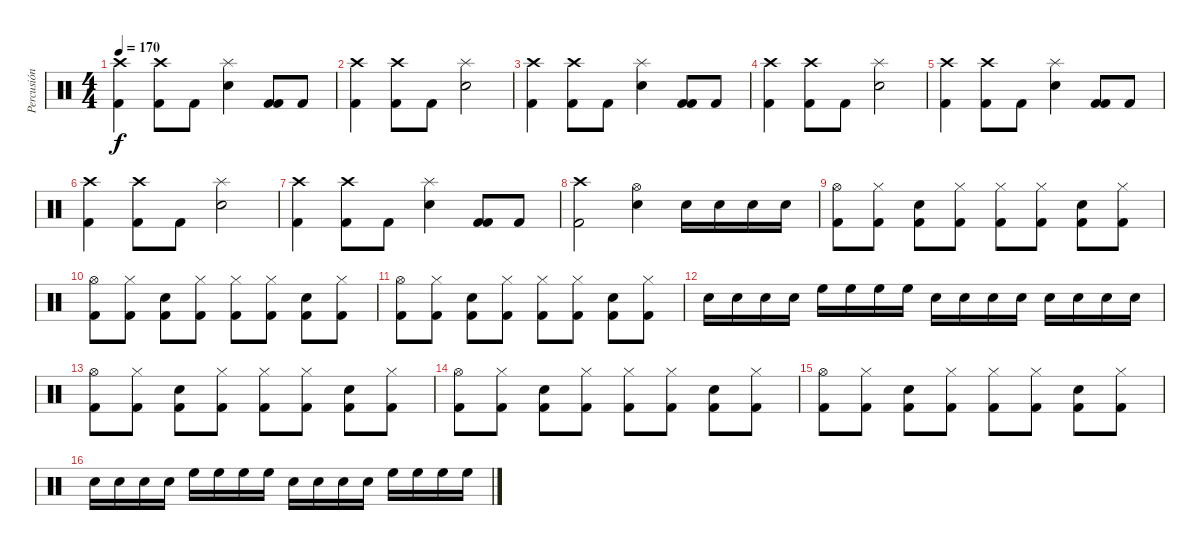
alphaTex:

\track ("Percusión" "Percusión") {instrument percussion}
\staff {score}
\articulation defaults
\ts (4 4)
\tempo 170
\clef neutral
\ks c
("Kick (hit) 2" "Crash high (hit)").4{dy f} ("Kick (hit) 2" "Crash high (hit)").8 "Kick (hit) 2".8 ("Splash (hit)" "Snare (hit) 2").4 ("Kick (hit) 2" "Kick (hit) 2").8 "Kick (hit) 2".8 |
("Kick (hit) 2" "Crash high (hit)").4 ("Kick (hit) 2" "Crash high (hit)").8 "Kick (hit) 2".8 ("Splash (hit)" "Snare (hit) 2").2 |
("Kick (hit) 2" "Crash high (hit)").4 ("Kick (hit) 2" "Crash high (hit)").8 "Kick (hit) 2".8 ("Splash (hit)" "Snare (hit) 2").4 ("Kick (hit) 2" "Kick (hit) 2").8 "Kick (hit) 2".8 |
("Kick (hit) 2" "Crash high (hit)").4 ("Kick (hit) 2" "Crash high (hit)").8 "Kick (hit) 2".8 ("Splash (hit)" "Snare (hit) 2").2 |
("Kick (hit) 2" "Crash high (hit)").4 ("Kick (hit) 2" "Crash high (hit)").8 "Kick (hit) 2".8 ("Splash (hit)" "Snare (hit) 2").4 ("Kick (hit) 2" "Kick (hit) 2").8 "Kick (hit) 2".8 |
("Kick (hit) 2" "Crash high (hit)").4 ("Kick (hit) 2" "Crash high (hit)").8 "Kick (hit) 2".8 ("Splash (hit)" "Snare (hit) 2").2 |
("Kick (hit) 2" "Crash high (hit)").4 ("Kick (hit) 2" "Crash high (hit)").8 "Kick (hit) 2".8 ("Splash (hit)" "Snare (hit) 2").4 ("Kick (hit) 2" "Kick (hit) 2").8 "Kick (hit) 2".8 |
("Kick (hit) 2" "Crash high (hit)").2 ("Snare (hit) 2" "Hi-Hat (open)").4 "Snare (hit) 2".16 "Snare (hit) 2".16 "Snare (hit) 2".16 "Snare (hit) 2".16 |
("Kick (hit) 2" "Hi-Hat (open)").8 ("Kick (hit) 2" "Hi-Hat (closed)").8 ("Kick (hit) 2" "Snare (hit) 2").8 ("Kick (hit) 2" "Hi-Hat (closed)").8 ("Kick (hit) 2" "Hi-Hat (closed)").8 ("Kick (hit) 2" "Hi-Hat (closed)").8 ("Kick (hit) 2" "Snare (hit) 2").8 ("Kick (hit) 2" "Hi-Hat (closed)").8 |
("Kick (hit) 2" "Hi-Hat (open)").8 ("Kick (hit) 2" "Hi-Hat (closed)").8 ("Kick (hit) 2" "Snare (hit) 2").8 ("Kick (hit) 2" "Hi-Hat (closed)").8 ("Kick (hit) 2" "Hi-Hat (closed)").8 ("Kick (hit) 2" "Hi-Hat (closed)").8 ("Kick (hit) 2" "Snare (hit) 2").8 ("Kick (hit) 2" "Hi-Hat (closed)").8 |
("Kick (hit) 2" "Hi-Hat (open)").8 ("Kick (hit) 2" "Hi-Hat (closed)").8 ("Kick (hit) 2" "Snare (hit) 2").8 ("Kick (hit) 2" "Hi-Hat (closed)").8 ("Kick (hit) 2" "Hi-Hat (closed)").8 ("Kick (hit) 2" "Hi-Hat (closed)").8 ("Kick (hit) 2" "Snare (hit) 2").8 ("Kick (hit) 2" "Hi-Hat (closed)").8 |
"Snare (hit) 2".16 "Snare (hit) 2".16 "Snare (hit) 2".16 "Snare (hit) 2".16 "High Floor Tom (hit)".16 "High Floor Tom (hit)".16 "High Floor Tom (hit)".16 "High Floor Tom (hit)".16 "Snare (hit) 2".16 "Snare (hit) 2".16 "Snare (hit) 2".16 "Snare (hit) 2".16 "Snare (hit) 2".16 "Snare (hit) 2".16 "Snare (hit) 2".16 "Snare (hit) 2".16 |
("Kick (hit) 2" "Hi-Hat (open)").8 ("Kick (hit) 2" "Hi-Hat (closed)").8 ("Kick (hit) 2" "Snare (hit) 2").8 ("Kick (hit) 2" "Hi-Hat (closed)").8 ("Kick (hit) 2" "Hi-Hat (closed)").8 ("Kick (hit) 2" "Hi-Hat (closed)").8 ("Kick (hit) 2" "Snare (hit) 2").8 ("Kick (hit) 2" "Hi-Hat (closed)").8 |
("Kick (hit) 2" "Hi-Hat (open)").8 ("Kick (hit) 2" "Hi-Hat (closed)").8 ("Kick (hit) 2" "Snare (hit) 2").8 ("Kick (hit) 2" "Hi-Hat (closed)").8 ("Kick (hit) 2" "Hi-Hat (closed)").8 ("Kick (hit) 2" "Hi-Hat (closed)").8 ("Kick (hit) 2" "Snare (hit) 2").8 ("Kick (hit) 2" "Hi-Hat (closed)").8 |
("Kick (hit) 2" "Hi-Hat (open)").8 ("Kick (hit) 2" "Hi-Hat (closed)").8 ("Kick (hit) 2" "Snare (hit) 2").8 ("Kick (hit) 2" "Hi-Hat (closed)").8 ("Kick (hit) 2" "Hi-Hat (closed)").8 ("Kick (hit) 2" "Hi-Hat (closed)").8 ("Kick (hit) 2" "Snare (hit) 2").8 ("Kick (hit) 2" "Hi-Hat (closed)").8 |
"Snare (hit) 2".16 "Snare (hit) 2".16 "Snare (hit) 2".16 "Snare (hit) 2".16 "High Floor Tom (hit)".16 "High Floor Tom (hit)".16 "High Floor Tom (hit)".16 "High Floor Tom (hit)".16 "Snare (hit) 2".16 "Snare (hit) 2".16 "Snare (hit) 2".16 "Snare (hit) 2".16 "High Floor Tom (hit)".16 "High Floor Tom (hit)".16 "High Floor Tom (hit)".16 "High Floor Tom (hit)".16
